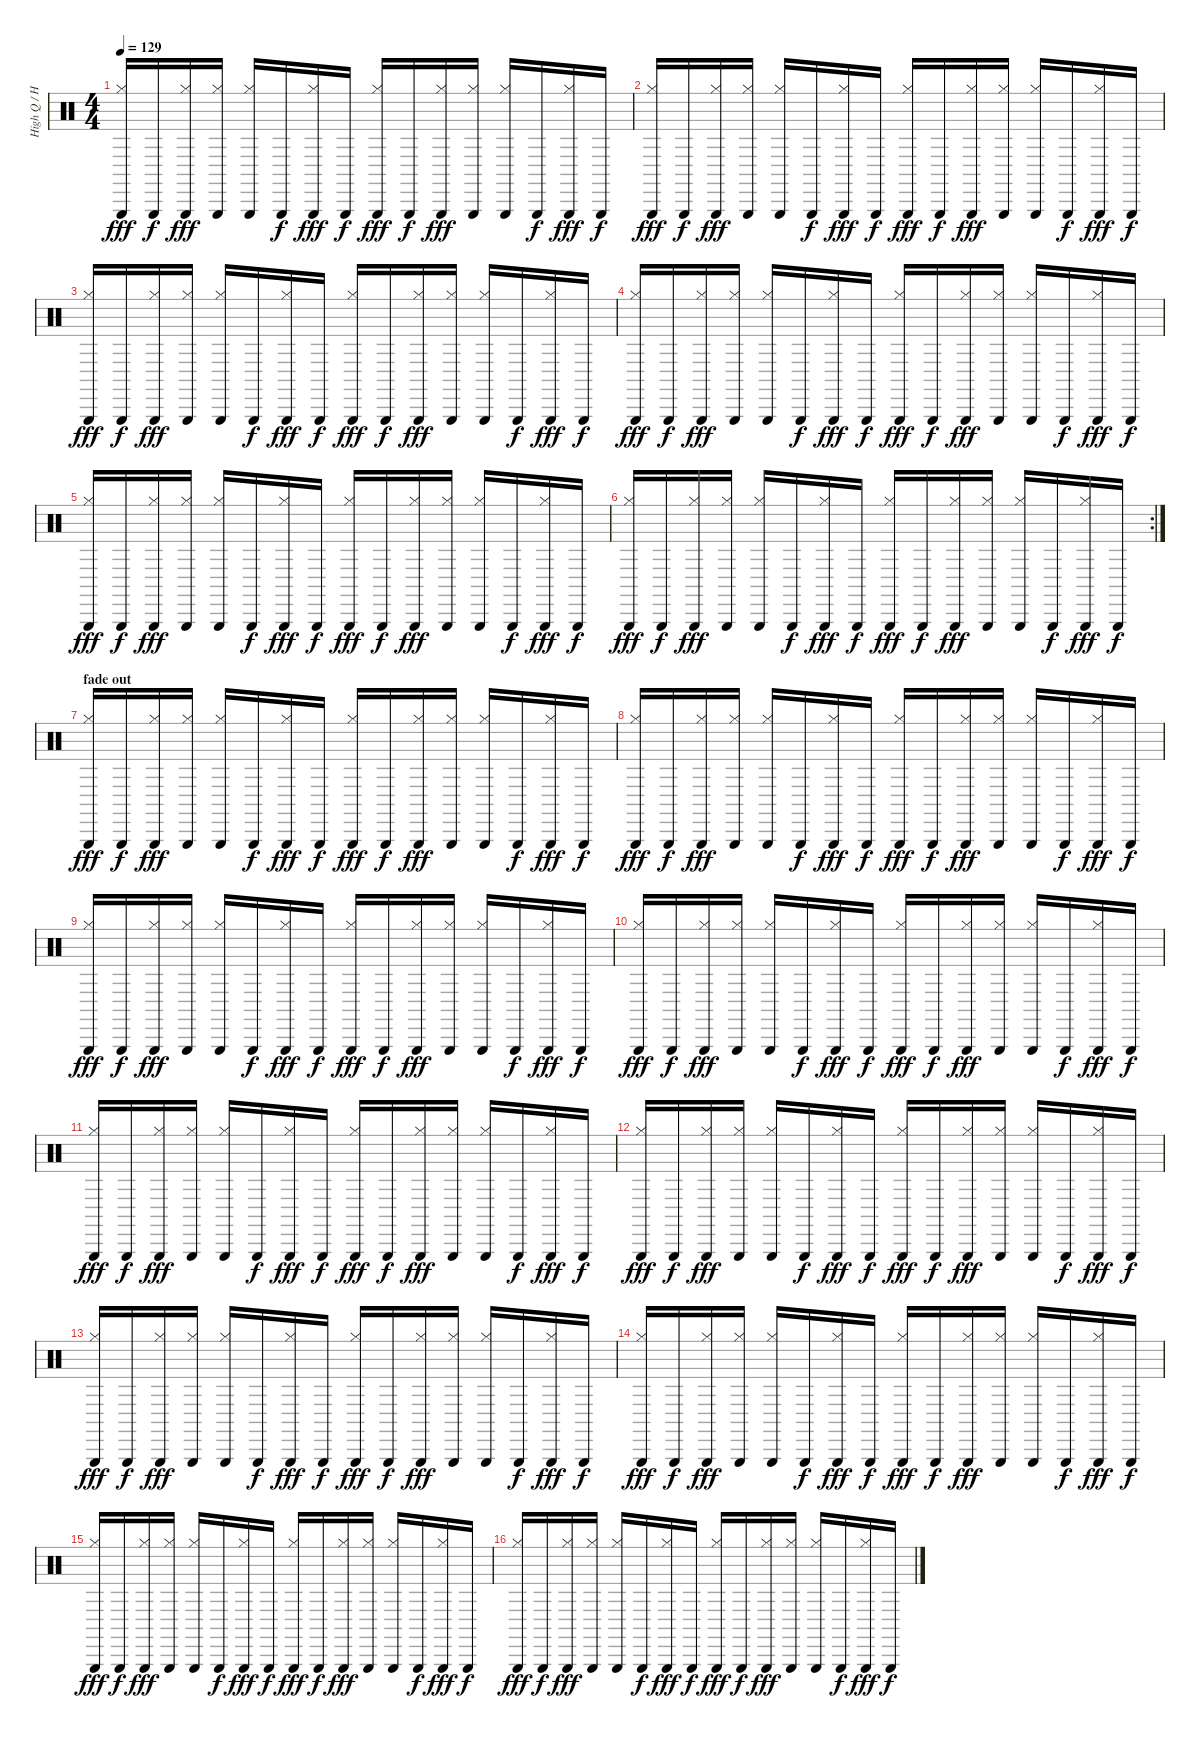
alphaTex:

\track ("High Q / Hats" "High Q / H") {instrument percussion}
\staff {score}
\articulation defaults
\ts (4 4)
\tempo 129
\clef neutral
\ks c
("Triangle (hit)" "Hi-Hat (closed)").16{dy fff} "Triangle (hit)".16{dy f} ("Triangle (hit)" "Hi-Hat (closed)").16{dy fff} ("Triangle (hit)" "Hi-Hat (closed)").16 ("Triangle (hit)" "Hi-Hat (closed)").16 "Triangle (hit)".16{dy f} ("Triangle (hit)" "Hi-Hat (closed)").16{dy fff} "Triangle (hit)".16{dy f} ("Triangle (hit)" "Hi-Hat (closed)").16{dy fff} "Triangle (hit)".16{dy f} ("Triangle (hit)" "Hi-Hat (closed)").16{dy fff} ("Triangle (hit)" "Hi-Hat (closed)").16 ("Triangle (hit)" "Hi-Hat (closed)").16 "Triangle (hit)".16{dy f} ("Triangle (hit)" "Hi-Hat (closed)").16{dy fff} "Triangle (hit)".16{dy f} |
("Triangle (hit)" "Hi-Hat (closed)").16{dy fff} "Triangle (hit)".16{dy f} ("Triangle (hit)" "Hi-Hat (closed)").16{dy fff} ("Triangle (hit)" "Hi-Hat (closed)").16 ("Triangle (hit)" "Hi-Hat (closed)").16 "Triangle (hit)".16{dy f} ("Triangle (hit)" "Hi-Hat (closed)").16{dy fff} "Triangle (hit)".16{dy f} ("Triangle (hit)" "Hi-Hat (closed)").16{dy fff} "Triangle (hit)".16{dy f} ("Triangle (hit)" "Hi-Hat (closed)").16{dy fff} ("Triangle (hit)" "Hi-Hat (closed)").16 ("Triangle (hit)" "Hi-Hat (closed)").16 "Triangle (hit)".16{dy f} ("Triangle (hit)" "Hi-Hat (closed)").16{dy fff} "Triangle (hit)".16{dy f} |
("Triangle (hit)" "Hi-Hat (closed)").16{dy fff} "Triangle (hit)".16{dy f} ("Triangle (hit)" "Hi-Hat (closed)").16{dy fff} ("Triangle (hit)" "Hi-Hat (closed)").16 ("Triangle (hit)" "Hi-Hat (closed)").16 "Triangle (hit)".16{dy f} ("Triangle (hit)" "Hi-Hat (closed)").16{dy fff} "Triangle (hit)".16{dy f} ("Triangle (hit)" "Hi-Hat (closed)").16{dy fff} "Triangle (hit)".16{dy f} ("Triangle (hit)" "Hi-Hat (closed)").16{dy fff} ("Triangle (hit)" "Hi-Hat (closed)").16 ("Triangle (hit)" "Hi-Hat (closed)").16 "Triangle (hit)".16{dy f} ("Triangle (hit)" "Hi-Hat (closed)").16{dy fff} "Triangle (hit)".16{dy f} |
("Triangle (hit)" "Hi-Hat (closed)").16{dy fff} "Triangle (hit)".16{dy f} ("Triangle (hit)" "Hi-Hat (closed)").16{dy fff} ("Triangle (hit)" "Hi-Hat (closed)").16 ("Triangle (hit)" "Hi-Hat (closed)").16 "Triangle (hit)".16{dy f} ("Triangle (hit)" "Hi-Hat (closed)").16{dy fff} "Triangle (hit)".16{dy f} ("Triangle (hit)" "Hi-Hat (closed)").16{dy fff} "Triangle (hit)".16{dy f} ("Triangle (hit)" "Hi-Hat (closed)").16{dy fff} ("Triangle (hit)" "Hi-Hat (closed)").16 ("Triangle (hit)" "Hi-Hat (closed)").16 "Triangle (hit)".16{dy f} ("Triangle (hit)" "Hi-Hat (closed)").16{dy fff} "Triangle (hit)".16{dy f} |
("Triangle (hit)" "Hi-Hat (closed)").16{dy fff} "Triangle (hit)".16{dy f} ("Triangle (hit)" "Hi-Hat (closed)").16{dy fff} ("Triangle (hit)" "Hi-Hat (closed)").16 ("Triangle (hit)" "Hi-Hat (closed)").16 "Triangle (hit)".16{dy f} ("Triangle (hit)" "Hi-Hat (closed)").16{dy fff} "Triangle (hit)".16{dy f} ("Triangle (hit)" "Hi-Hat (closed)").16{dy fff} "Triangle (hit)".16{dy f} ("Triangle (hit)" "Hi-Hat (closed)").16{dy fff} ("Triangle (hit)" "Hi-Hat (closed)").16 ("Triangle (hit)" "Hi-Hat (closed)").16 "Triangle (hit)".16{dy f} ("Triangle (hit)" "Hi-Hat (closed)").16{dy fff} "Triangle (hit)".16{dy f} |
\rc 2
("Triangle (hit)" "Hi-Hat (closed)").16{dy fff} "Triangle (hit)".16{dy f} ("Triangle (hit)" "Hi-Hat (closed)").16{dy fff} ("Triangle (hit)" "Hi-Hat (closed)").16 ("Triangle (hit)" "Hi-Hat (closed)").16 "Triangle (hit)".16{dy f} ("Triangle (hit)" "Hi-Hat (closed)").16{dy fff} "Triangle (hit)".16{dy f} ("Triangle (hit)" "Hi-Hat (closed)").16{dy fff} "Triangle (hit)".16{dy f} ("Triangle (hit)" "Hi-Hat (closed)").16{dy fff} ("Triangle (hit)" "Hi-Hat (closed)").16 ("Triangle (hit)" "Hi-Hat (closed)").16 "Triangle (hit)".16{dy f} ("Triangle (hit)" "Hi-Hat (closed)").16{dy fff} "Triangle (hit)".16{dy f} |
\section ("" "fade out")
("Triangle (hit)" "Hi-Hat (closed)").16{dy fff} "Triangle (hit)".16{dy f} ("Triangle (hit)" "Hi-Hat (closed)").16{dy fff} ("Triangle (hit)" "Hi-Hat (closed)").16 ("Triangle (hit)" "Hi-Hat (closed)").16 "Triangle (hit)".16{dy f} ("Triangle (hit)" "Hi-Hat (closed)").16{dy fff} "Triangle (hit)".16{dy f} ("Triangle (hit)" "Hi-Hat (closed)").16{dy fff} "Triangle (hit)".16{dy f} ("Triangle (hit)" "Hi-Hat (closed)").16{dy fff} ("Triangle (hit)" "Hi-Hat (closed)").16 ("Triangle (hit)" "Hi-Hat (closed)").16 "Triangle (hit)".16{dy f} ("Triangle (hit)" "Hi-Hat (closed)").16{dy fff} "Triangle (hit)".16{dy f} |
("Triangle (hit)" "Hi-Hat (closed)").16{dy fff} "Triangle (hit)".16{dy f} ("Triangle (hit)" "Hi-Hat (closed)").16{dy fff} ("Triangle (hit)" "Hi-Hat (closed)").16 ("Triangle (hit)" "Hi-Hat (closed)").16 "Triangle (hit)".16{dy f} ("Triangle (hit)" "Hi-Hat (closed)").16{dy fff} "Triangle (hit)".16{dy f} ("Triangle (hit)" "Hi-Hat (closed)").16{dy fff} "Triangle (hit)".16{dy f} ("Triangle (hit)" "Hi-Hat (closed)").16{dy fff} ("Triangle (hit)" "Hi-Hat (closed)").16 ("Triangle (hit)" "Hi-Hat (closed)").16 "Triangle (hit)".16{dy f} ("Triangle (hit)" "Hi-Hat (closed)").16{dy fff} "Triangle (hit)".16{dy f} |
("Triangle (hit)" "Hi-Hat (closed)").16{dy fff} "Triangle (hit)".16{dy f} ("Triangle (hit)" "Hi-Hat (closed)").16{dy fff} ("Triangle (hit)" "Hi-Hat (closed)").16 ("Triangle (hit)" "Hi-Hat (closed)").16 "Triangle (hit)".16{dy f} ("Triangle (hit)" "Hi-Hat (closed)").16{dy fff} "Triangle (hit)".16{dy f} ("Triangle (hit)" "Hi-Hat (closed)").16{dy fff} "Triangle (hit)".16{dy f} ("Triangle (hit)" "Hi-Hat (closed)").16{dy fff} ("Triangle (hit)" "Hi-Hat (closed)").16 ("Triangle (hit)" "Hi-Hat (closed)").16 "Triangle (hit)".16{dy f} ("Triangle (hit)" "Hi-Hat (closed)").16{dy fff} "Triangle (hit)".16{dy f} |
("Triangle (hit)" "Hi-Hat (closed)").16{dy fff} "Triangle (hit)".16{dy f} ("Triangle (hit)" "Hi-Hat (closed)").16{dy fff} ("Triangle (hit)" "Hi-Hat (closed)").16 ("Triangle (hit)" "Hi-Hat (closed)").16 "Triangle (hit)".16{dy f} ("Triangle (hit)" "Hi-Hat (closed)").16{dy fff} "Triangle (hit)".16{dy f} ("Triangle (hit)" "Hi-Hat (closed)").16{dy fff} "Triangle (hit)".16{dy f} ("Triangle (hit)" "Hi-Hat (closed)").16{dy fff} ("Triangle (hit)" "Hi-Hat (closed)").16 ("Triangle (hit)" "Hi-Hat (closed)").16 "Triangle (hit)".16{dy f} ("Triangle (hit)" "Hi-Hat (closed)").16{dy fff} "Triangle (hit)".16{dy f} |
("Triangle (hit)" "Hi-Hat (closed)").16{dy fff} "Triangle (hit)".16{dy f} ("Triangle (hit)" "Hi-Hat (closed)").16{dy fff} ("Triangle (hit)" "Hi-Hat (closed)").16 ("Triangle (hit)" "Hi-Hat (closed)").16 "Triangle (hit)".16{dy f} ("Triangle (hit)" "Hi-Hat (closed)").16{dy fff} "Triangle (hit)".16{dy f} ("Triangle (hit)" "Hi-Hat (closed)").16{dy fff} "Triangle (hit)".16{dy f} ("Triangle (hit)" "Hi-Hat (closed)").16{dy fff} ("Triangle (hit)" "Hi-Hat (closed)").16 ("Triangle (hit)" "Hi-Hat (closed)").16 "Triangle (hit)".16{dy f} ("Triangle (hit)" "Hi-Hat (closed)").16{dy fff} "Triangle (hit)".16{dy f} |
("Triangle (hit)" "Hi-Hat (closed)").16{dy fff} "Triangle (hit)".16{dy f} ("Triangle (hit)" "Hi-Hat (closed)").16{dy fff} ("Triangle (hit)" "Hi-Hat (closed)").16 ("Triangle (hit)" "Hi-Hat (closed)").16 "Triangle (hit)".16{dy f} ("Triangle (hit)" "Hi-Hat (closed)").16{dy fff} "Triangle (hit)".16{dy f} ("Triangle (hit)" "Hi-Hat (closed)").16{dy fff} "Triangle (hit)".16{dy f} ("Triangle (hit)" "Hi-Hat (closed)").16{dy fff} ("Triangle (hit)" "Hi-Hat (closed)").16 ("Triangle (hit)" "Hi-Hat (closed)").16 "Triangle (hit)".16{dy f} ("Triangle (hit)" "Hi-Hat (closed)").16{dy fff} "Triangle (hit)".16{dy f} |
("Triangle (hit)" "Hi-Hat (closed)").16{dy fff} "Triangle (hit)".16{dy f} ("Triangle (hit)" "Hi-Hat (closed)").16{dy fff} ("Triangle (hit)" "Hi-Hat (closed)").16 ("Triangle (hit)" "Hi-Hat (closed)").16 "Triangle (hit)".16{dy f} ("Triangle (hit)" "Hi-Hat (closed)").16{dy fff} "Triangle (hit)".16{dy f} ("Triangle (hit)" "Hi-Hat (closed)").16{dy fff} "Triangle (hit)".16{dy f} ("Triangle (hit)" "Hi-Hat (closed)").16{dy fff} ("Triangle (hit)" "Hi-Hat (closed)").16 ("Triangle (hit)" "Hi-Hat (closed)").16 "Triangle (hit)".16{dy f} ("Triangle (hit)" "Hi-Hat (closed)").16{dy fff} "Triangle (hit)".16{dy f} |
("Triangle (hit)" "Hi-Hat (closed)").16{dy fff} "Triangle (hit)".16{dy f} ("Triangle (hit)" "Hi-Hat (closed)").16{dy fff} ("Triangle (hit)" "Hi-Hat (closed)").16 ("Triangle (hit)" "Hi-Hat (closed)").16 "Triangle (hit)".16{dy f} ("Triangle (hit)" "Hi-Hat (closed)").16{dy fff} "Triangle (hit)".16{dy f} ("Triangle (hit)" "Hi-Hat (closed)").16{dy fff} "Triangle (hit)".16{dy f} ("Triangle (hit)" "Hi-Hat (closed)").16{dy fff} ("Triangle (hit)" "Hi-Hat (closed)").16 ("Triangle (hit)" "Hi-Hat (closed)").16 "Triangle (hit)".16{dy f} ("Triangle (hit)" "Hi-Hat (closed)").16{dy fff} "Triangle (hit)".16{dy f} |
("Triangle (hit)" "Hi-Hat (closed)").16{dy fff} "Triangle (hit)".16{dy f} ("Triangle (hit)" "Hi-Hat (closed)").16{dy fff} ("Triangle (hit)" "Hi-Hat (closed)").16 ("Triangle (hit)" "Hi-Hat (closed)").16 "Triangle (hit)".16{dy f} ("Triangle (hit)" "Hi-Hat (closed)").16{dy fff} "Triangle (hit)".16{dy f} ("Triangle (hit)" "Hi-Hat (closed)").16{dy fff} "Triangle (hit)".16{dy f} ("Triangle (hit)" "Hi-Hat (closed)").16{dy fff} ("Triangle (hit)" "Hi-Hat (closed)").16 ("Triangle (hit)" "Hi-Hat (closed)").16 "Triangle (hit)".16{dy f} ("Triangle (hit)" "Hi-Hat (closed)").16{dy fff} "Triangle (hit)".16{dy f} |
("Triangle (hit)" "Hi-Hat (closed)").16{dy fff} "Triangle (hit)".16{dy f} ("Triangle (hit)" "Hi-Hat (closed)").16{dy fff} ("Triangle (hit)" "Hi-Hat (closed)").16 ("Triangle (hit)" "Hi-Hat (closed)").16 "Triangle (hit)".16{dy f} ("Triangle (hit)" "Hi-Hat (closed)").16{dy fff} "Triangle (hit)".16{dy f} ("Triangle (hit)" "Hi-Hat (closed)").16{dy fff} "Triangle (hit)".16{dy f} ("Triangle (hit)" "Hi-Hat (closed)").16{dy fff} ("Triangle (hit)" "Hi-Hat (closed)").16 ("Triangle (hit)" "Hi-Hat (closed)").16 "Triangle (hit)".16{dy f} ("Triangle (hit)" "Hi-Hat (closed)").16{dy fff} "Triangle (hit)".16{dy f}
